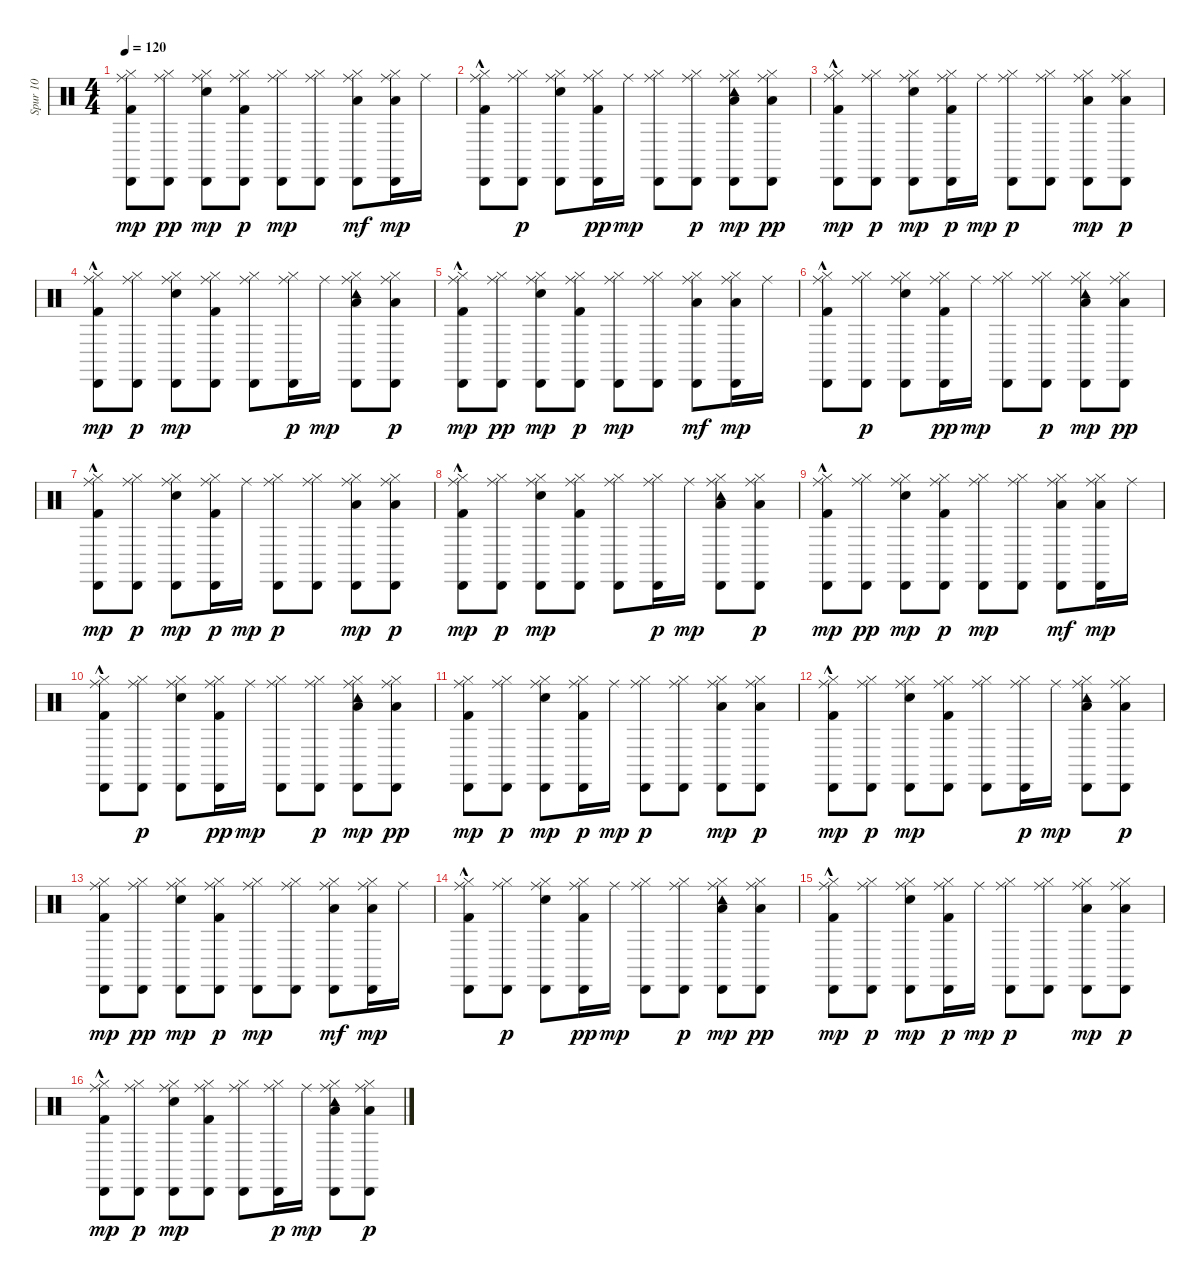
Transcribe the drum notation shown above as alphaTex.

\track ("Spur 10" "Spur 10") {instrument percussion}
\staff {score}
\articulation defaults
\ts (4 4)
\tempo 120
\clef neutral
\ks c
("Kick (hit) 2" "Hi-Hat (closed)" "Cabasa (hit)" "Ride (middle)").8{dy mp} ("Hi-Hat (closed)" "Cabasa (hit)" "Ride (middle)").8{dy pp} ("Snare (hit) 2" "Hi-Hat (closed)" "Cabasa (hit)" "Ride (middle)").8{dy mp} ("Kick (hit) 2" "Hi-Hat (closed)" "Cabasa (hit)" "Ride (middle)").8{dy p} ("Hi-Hat (closed)" "Cabasa (hit)" "Ride (middle)").8{dy mp} ("Hi-Hat (closed)" "Cabasa (hit)" "Ride (middle)").8 ("Low Floor Tom (hit)" "Hi-Hat (closed)" "Cabasa (hit)" "Ride (middle)").8{dy mf} ("Low Floor Tom (hit)" "Hi-Hat (closed)" "Cabasa (hit)" "Ride (middle)").16{dy mp} "Ride (middle)".16 |
("Kick (hit) 2"{hac} "Hi-Hat (closed)" "Cabasa (hit)" "Ride (middle)").8 ("Hi-Hat (closed)" "Cabasa (hit)" "Ride (middle)").8{dy p} ("Snare (hit) 2" "Hi-Hat (closed)" "Cabasa (hit)" "Ride (middle)").8 ("Kick (hit) 2" "Hi-Hat (closed)" "Cabasa (hit)" "Ride (middle)").16{dy pp} "Ride (middle)".16{dy mp} ("Hi-Hat (closed)" "Cabasa (hit)" "Ride (middle)").8 ("Hi-Hat (closed)" "Cabasa (hit)" "Ride (middle)").8{dy p} ("Low Tom (hit)" "Hi-Hat (closed)" "Cabasa (hit)" "Tambourine (hit)" "Ride (middle)").8{dy mp} ("Low Tom (hit)" "Hi-Hat (closed)" "Cabasa (hit)" "Ride (middle)").8{dy pp} |
("Kick (hit) 2"{hac} "Hi-Hat (closed)" "Cabasa (hit)" "Ride (middle)").8{dy mp} ("Hi-Hat (closed)" "Cabasa (hit)" "Ride (middle)").8{dy p} ("Snare (hit) 2" "Hi-Hat (closed)" "Cabasa (hit)" "Ride (middle)").8{dy mp} ("Kick (hit) 2" "Hi-Hat (closed)" "Cabasa (hit)" "Ride (middle)").16{dy p} "Ride (middle)".16{dy mp} ("Hi-Hat (closed)" "Cabasa (hit)" "Ride (middle)").8{dy p} ("Hi-Hat (closed)" "Cabasa (hit)" "Ride (middle)").8 ("Low Floor Tom (hit)" "Hi-Hat (closed)" "Cabasa (hit)" "Ride (middle)").8{dy mp} ("Low Floor Tom (hit)" "Hi-Hat (closed)" "Cabasa (hit)" "Ride (middle)").8{dy p} |
("Kick (hit) 2"{hac} "Hi-Hat (closed)" "Cabasa (hit)" "Ride (middle)").8{dy mp} ("Hi-Hat (closed)" "Cabasa (hit)" "Ride (middle)").8{dy p} ("Snare (hit) 2" "Hi-Hat (closed)" "Cabasa (hit)" "Ride (middle)").8{dy mp} ("Kick (hit) 2" "Hi-Hat (closed)" "Cabasa (hit)" "Ride (middle)").8 ("Hi-Hat (closed)" "Cabasa (hit)" "Ride (middle)").8 ("Hi-Hat (closed)" "Cabasa (hit)" "Ride (middle)").16{dy p} "Ride (middle)".16{dy mp} ("Low Tom (hit)" "Hi-Hat (closed)" "Cabasa (hit)" "Tambourine (hit)" "Ride (middle)").8 ("Low Tom (hit)" "Hi-Hat (closed)" "Cabasa (hit)" "Ride (middle)").8{dy p} |
("Kick (hit) 2"{hac} "Hi-Hat (closed)" "Cabasa (hit)" "Ride (middle)").8{dy mp} ("Hi-Hat (closed)" "Cabasa (hit)" "Ride (middle)").8{dy pp} ("Snare (hit) 2" "Hi-Hat (closed)" "Cabasa (hit)" "Ride (middle)").8{dy mp} ("Kick (hit) 2" "Hi-Hat (closed)" "Cabasa (hit)" "Ride (middle)").8{dy p} ("Hi-Hat (closed)" "Cabasa (hit)" "Ride (middle)").8{dy mp} ("Hi-Hat (closed)" "Cabasa (hit)" "Ride (middle)").8 ("Low Floor Tom (hit)" "Hi-Hat (closed)" "Cabasa (hit)" "Ride (middle)").8{dy mf} ("Low Floor Tom (hit)" "Hi-Hat (closed)" "Cabasa (hit)" "Ride (middle)").16{dy mp} "Ride (middle)".16 |
("Kick (hit) 2"{hac} "Hi-Hat (closed)" "Cabasa (hit)" "Ride (middle)").8 ("Hi-Hat (closed)" "Cabasa (hit)" "Ride (middle)").8{dy p} ("Snare (hit) 2" "Hi-Hat (closed)" "Cabasa (hit)" "Ride (middle)").8 ("Kick (hit) 2" "Hi-Hat (closed)" "Cabasa (hit)" "Ride (middle)").16{dy pp} "Ride (middle)".16{dy mp} ("Hi-Hat (closed)" "Cabasa (hit)" "Ride (middle)").8 ("Hi-Hat (closed)" "Cabasa (hit)" "Ride (middle)").8{dy p} ("Low Tom (hit)" "Hi-Hat (closed)" "Cabasa (hit)" "Tambourine (hit)" "Ride (middle)").8{dy mp} ("Low Tom (hit)" "Hi-Hat (closed)" "Cabasa (hit)" "Ride (middle)").8{dy pp} |
("Kick (hit) 2"{hac} "Hi-Hat (closed)" "Cabasa (hit)" "Ride (middle)").8{dy mp} ("Hi-Hat (closed)" "Cabasa (hit)" "Ride (middle)").8{dy p} ("Snare (hit) 2" "Hi-Hat (closed)" "Cabasa (hit)" "Ride (middle)").8{dy mp} ("Kick (hit) 2" "Hi-Hat (closed)" "Cabasa (hit)" "Ride (middle)").16{dy p} "Ride (middle)".16{dy mp} ("Hi-Hat (closed)" "Cabasa (hit)" "Ride (middle)").8{dy p} ("Hi-Hat (closed)" "Cabasa (hit)" "Ride (middle)").8 ("Low Floor Tom (hit)" "Hi-Hat (closed)" "Cabasa (hit)" "Ride (middle)").8{dy mp} ("Low Floor Tom (hit)" "Hi-Hat (closed)" "Cabasa (hit)" "Ride (middle)").8{dy p} |
("Kick (hit) 2"{hac} "Hi-Hat (closed)" "Cabasa (hit)" "Ride (middle)").8{dy mp} ("Hi-Hat (closed)" "Cabasa (hit)" "Ride (middle)").8{dy p} ("Snare (hit) 2" "Hi-Hat (closed)" "Cabasa (hit)" "Ride (middle)").8{dy mp} ("Kick (hit) 2" "Hi-Hat (closed)" "Cabasa (hit)" "Ride (middle)").8 ("Hi-Hat (closed)" "Cabasa (hit)" "Ride (middle)").8 ("Hi-Hat (closed)" "Cabasa (hit)" "Ride (middle)").16{dy p} "Ride (middle)".16{dy mp} ("Low Tom (hit)" "Hi-Hat (closed)" "Cabasa (hit)" "Tambourine (hit)" "Ride (middle)").8 ("Low Tom (hit)" "Hi-Hat (closed)" "Cabasa (hit)" "Ride (middle)").8{dy p} |
("Kick (hit) 2"{hac} "Hi-Hat (closed)" "Cabasa (hit)" "Ride (middle)").8{dy mp} ("Hi-Hat (closed)" "Cabasa (hit)" "Ride (middle)").8{dy pp} ("Snare (hit) 2" "Hi-Hat (closed)" "Cabasa (hit)" "Ride (middle)").8{dy mp} ("Kick (hit) 2" "Hi-Hat (closed)" "Cabasa (hit)" "Ride (middle)").8{dy p} ("Hi-Hat (closed)" "Cabasa (hit)" "Ride (middle)").8{dy mp} ("Hi-Hat (closed)" "Cabasa (hit)" "Ride (middle)").8 ("Low Floor Tom (hit)" "Hi-Hat (closed)" "Cabasa (hit)" "Ride (middle)").8{dy mf} ("Low Floor Tom (hit)" "Hi-Hat (closed)" "Cabasa (hit)" "Ride (middle)").16{dy mp} "Ride (middle)".16 |
("Kick (hit) 2"{hac} "Hi-Hat (closed)" "Cabasa (hit)" "Ride (middle)").8 ("Hi-Hat (closed)" "Cabasa (hit)" "Ride (middle)").8{dy p} ("Snare (hit) 2" "Hi-Hat (closed)" "Cabasa (hit)" "Ride (middle)").8 ("Kick (hit) 2" "Hi-Hat (closed)" "Cabasa (hit)" "Ride (middle)").16{dy pp} "Ride (middle)".16{dy mp} ("Hi-Hat (closed)" "Cabasa (hit)" "Ride (middle)").8 ("Hi-Hat (closed)" "Cabasa (hit)" "Ride (middle)").8{dy p} ("Low Tom (hit)" "Hi-Hat (closed)" "Cabasa (hit)" "Tambourine (hit)" "Ride (middle)").8{dy mp} ("Low Tom (hit)" "Hi-Hat (closed)" "Cabasa (hit)" "Ride (middle)").8{dy pp} |
("Kick (hit) 2" "Hi-Hat (closed)" "Cabasa (hit)" "Ride (middle)").8{dy mp} ("Hi-Hat (closed)" "Cabasa (hit)" "Ride (middle)").8{dy p} ("Snare (hit) 2" "Hi-Hat (closed)" "Cabasa (hit)" "Ride (middle)").8{dy mp} ("Kick (hit) 2" "Hi-Hat (closed)" "Cabasa (hit)" "Ride (middle)").16{dy p} "Ride (middle)".16{dy mp} ("Hi-Hat (closed)" "Cabasa (hit)" "Ride (middle)").8{dy p} ("Hi-Hat (closed)" "Cabasa (hit)" "Ride (middle)").8 ("Low Floor Tom (hit)" "Hi-Hat (closed)" "Cabasa (hit)" "Ride (middle)").8{dy mp} ("Low Floor Tom (hit)" "Hi-Hat (closed)" "Cabasa (hit)" "Ride (middle)").8{dy p} |
("Kick (hit) 2"{hac} "Hi-Hat (closed)" "Cabasa (hit)" "Ride (middle)").8{dy mp} ("Hi-Hat (closed)" "Cabasa (hit)" "Ride (middle)").8{dy p} ("Snare (hit) 2" "Hi-Hat (closed)" "Cabasa (hit)" "Ride (middle)").8{dy mp} ("Kick (hit) 2" "Hi-Hat (closed)" "Cabasa (hit)" "Ride (middle)").8 ("Hi-Hat (closed)" "Cabasa (hit)" "Ride (middle)").8 ("Hi-Hat (closed)" "Cabasa (hit)" "Ride (middle)").16{dy p} "Ride (middle)".16{dy mp} ("Low Tom (hit)" "Hi-Hat (closed)" "Cabasa (hit)" "Tambourine (hit)" "Ride (middle)").8 ("Low Tom (hit)" "Hi-Hat (closed)" "Cabasa (hit)" "Ride (middle)").8{dy p} |
("Kick (hit) 2" "Hi-Hat (closed)" "Cabasa (hit)" "Ride (middle)").8{dy mp} ("Hi-Hat (closed)" "Cabasa (hit)" "Ride (middle)").8{dy pp} ("Snare (hit) 2" "Hi-Hat (closed)" "Cabasa (hit)" "Ride (middle)").8{dy mp} ("Kick (hit) 2" "Hi-Hat (closed)" "Cabasa (hit)" "Ride (middle)").8{dy p} ("Hi-Hat (closed)" "Cabasa (hit)" "Ride (middle)").8{dy mp} ("Hi-Hat (closed)" "Cabasa (hit)" "Ride (middle)").8 ("Low Floor Tom (hit)" "Hi-Hat (closed)" "Cabasa (hit)" "Ride (middle)").8{dy mf} ("Low Floor Tom (hit)" "Hi-Hat (closed)" "Cabasa (hit)" "Ride (middle)").16{dy mp} "Ride (middle)".16 |
("Kick (hit) 2"{hac} "Hi-Hat (closed)" "Cabasa (hit)" "Ride (middle)").8 ("Hi-Hat (closed)" "Cabasa (hit)" "Ride (middle)").8{dy p} ("Snare (hit) 2" "Hi-Hat (closed)" "Cabasa (hit)" "Ride (middle)").8 ("Kick (hit) 2" "Hi-Hat (closed)" "Cabasa (hit)" "Ride (middle)").16{dy pp} "Ride (middle)".16{dy mp} ("Hi-Hat (closed)" "Cabasa (hit)" "Ride (middle)").8 ("Hi-Hat (closed)" "Cabasa (hit)" "Ride (middle)").8{dy p} ("Low Tom (hit)" "Hi-Hat (closed)" "Cabasa (hit)" "Tambourine (hit)" "Ride (middle)").8{dy mp} ("Low Tom (hit)" "Hi-Hat (closed)" "Cabasa (hit)" "Ride (middle)").8{dy pp} |
("Kick (hit) 2"{hac} "Hi-Hat (closed)" "Cabasa (hit)" "Ride (middle)").8{dy mp} ("Hi-Hat (closed)" "Cabasa (hit)" "Ride (middle)").8{dy p} ("Snare (hit) 2" "Hi-Hat (closed)" "Cabasa (hit)" "Ride (middle)").8{dy mp} ("Kick (hit) 2" "Hi-Hat (closed)" "Cabasa (hit)" "Ride (middle)").16{dy p} "Ride (middle)".16{dy mp} ("Hi-Hat (closed)" "Cabasa (hit)" "Ride (middle)").8{dy p} ("Hi-Hat (closed)" "Cabasa (hit)" "Ride (middle)").8 ("Low Floor Tom (hit)" "Hi-Hat (closed)" "Cabasa (hit)" "Ride (middle)").8{dy mp} ("Low Floor Tom (hit)" "Hi-Hat (closed)" "Cabasa (hit)" "Ride (middle)").8{dy p} |
("Kick (hit) 2"{hac} "Hi-Hat (closed)" "Cabasa (hit)" "Ride (middle)").8{dy mp} ("Hi-Hat (closed)" "Cabasa (hit)" "Ride (middle)").8{dy p} ("Snare (hit) 2" "Hi-Hat (closed)" "Cabasa (hit)" "Ride (middle)").8{dy mp} ("Kick (hit) 2" "Hi-Hat (closed)" "Cabasa (hit)" "Ride (middle)").8 ("Hi-Hat (closed)" "Cabasa (hit)" "Ride (middle)").8 ("Hi-Hat (closed)" "Cabasa (hit)" "Ride (middle)").16{dy p} "Ride (middle)".16{dy mp} ("Low Tom (hit)" "Hi-Hat (closed)" "Cabasa (hit)" "Tambourine (hit)" "Ride (middle)").8 ("Low Tom (hit)" "Hi-Hat (closed)" "Cabasa (hit)" "Ride (middle)").8{dy p}
